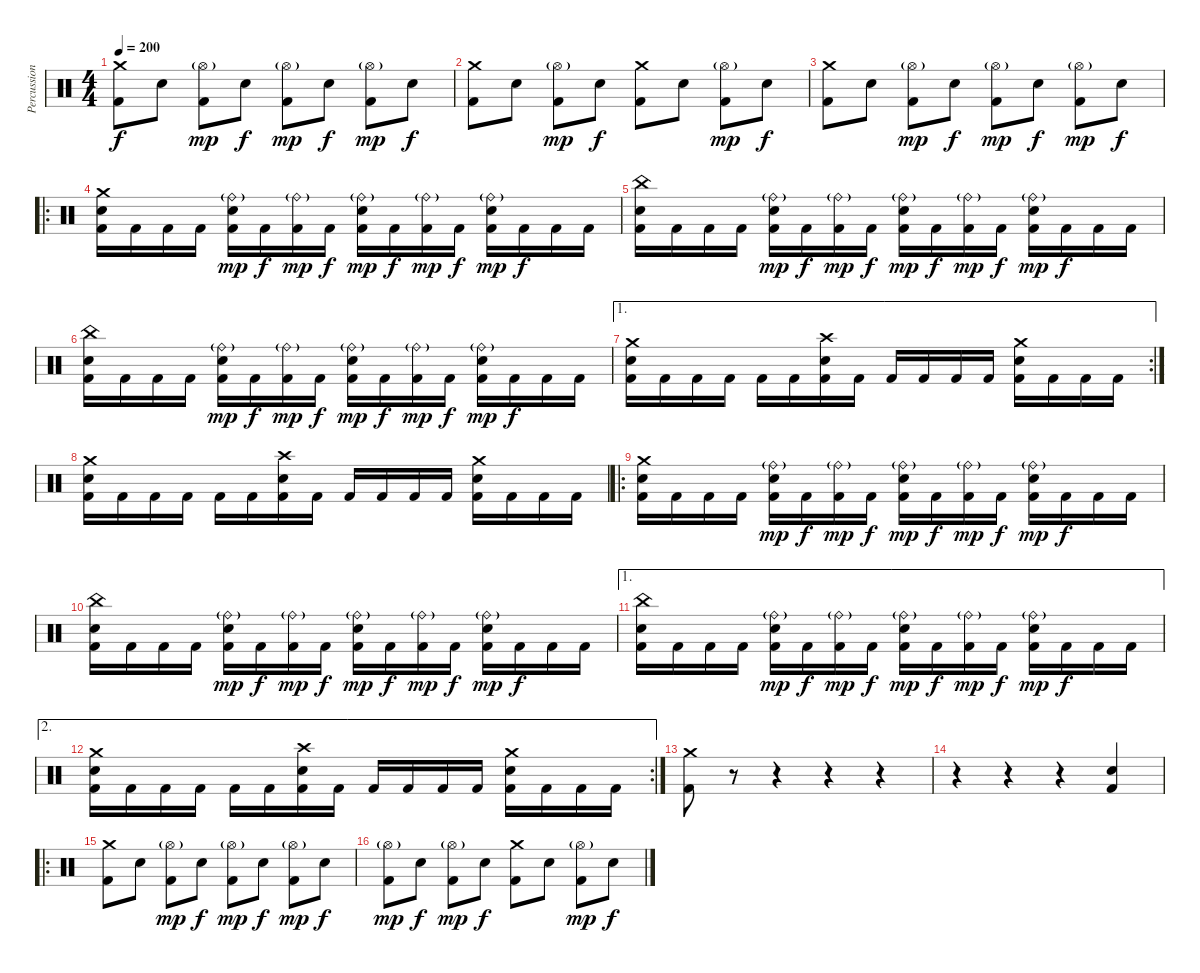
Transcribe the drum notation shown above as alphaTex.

\track ("Percussion" "Percussion") {instrument percussion}
\staff {score}
\articulation defaults
\ts (4 4)
\tempo 200
\clef neutral
\ks c
("Crash medium (hit)" "Kick (hit) 2").8{dy f} "Electric Snare (hit)".8 ("Hi-Hat (open)"{g} "Kick (hit) 2").8{dy mp} "Electric Snare (hit)".8{dy f} ("Hi-Hat (open)"{g} "Kick (hit) 2").8{dy mp} "Electric Snare (hit)".8{dy f} ("Hi-Hat (open)"{g} "Kick (hit) 2").8{dy mp} "Electric Snare (hit)".8{dy f} |
("Crash medium (hit)" "Kick (hit) 2").8 "Electric Snare (hit)".8 ("Hi-Hat (open)"{g} "Kick (hit) 2").8{dy mp} "Electric Snare (hit)".8{dy f} ("Crash medium (hit)" "Kick (hit) 2").8 "Electric Snare (hit)".8 ("Hi-Hat (open)"{g} "Kick (hit) 2").8{dy mp} "Electric Snare (hit)".8{dy f} |
("Crash medium (hit)" "Kick (hit) 2").8 "Electric Snare (hit)".8 ("Hi-Hat (open)"{g} "Kick (hit) 2").8{dy mp} "Electric Snare (hit)".8{dy f} ("Hi-Hat (open)"{g} "Kick (hit) 2").8{dy mp} "Electric Snare (hit)".8{dy f} ("Hi-Hat (open)"{g} "Kick (hit) 2").8{dy mp} "Electric Snare (hit)".8{dy f} |
\ro
("Crash medium (hit)" "Electric Snare (hit)" "Kick (hit) 2").16 "Kick (hit) 2".16 "Kick (hit) 2".16 "Kick (hit) 2".16 ("Ride (bell)"{g} "Electric Snare (hit)" "Kick (hit) 2").16{dy mp} "Kick (hit) 2".16{dy f} ("Ride (bell)"{g} "Kick (hit) 2").16{dy mp} "Kick (hit) 2".16{dy f} ("Ride (bell)"{g} "Electric Snare (hit)" "Kick (hit) 2").16{dy mp} "Kick (hit) 2".16{dy f} ("Ride (bell)"{g} "Kick (hit) 2").16{dy mp} "Kick (hit) 2".16{dy f} ("Ride (bell)"{g} "Electric Snare (hit)" "Kick (hit) 2").16{dy mp} "Kick (hit) 2".16{dy f} "Kick (hit) 2".16 "Kick (hit) 2".16 |
("China (hit)" "Electric Snare (hit)" "Kick (hit) 2").16 "Kick (hit) 2".16 "Kick (hit) 2".16 "Kick (hit) 2".16 ("Ride (bell)"{g} "Electric Snare (hit)" "Kick (hit) 2").16{dy mp} "Kick (hit) 2".16{dy f} ("Ride (bell)"{g} "Kick (hit) 2").16{dy mp} "Kick (hit) 2".16{dy f} ("Ride (bell)"{g} "Electric Snare (hit)" "Kick (hit) 2").16{dy mp} "Kick (hit) 2".16{dy f} ("Ride (bell)"{g} "Kick (hit) 2").16{dy mp} "Kick (hit) 2".16{dy f} ("Ride (bell)"{g} "Electric Snare (hit)" "Kick (hit) 2").16{dy mp} "Kick (hit) 2".16{dy f} "Kick (hit) 2".16 "Kick (hit) 2".16 |
("China (hit)" "Electric Snare (hit)" "Kick (hit) 2").16 "Kick (hit) 2".16 "Kick (hit) 2".16 "Kick (hit) 2".16 ("Ride (bell)"{g} "Electric Snare (hit)" "Kick (hit) 2").16{dy mp} "Kick (hit) 2".16{dy f} ("Ride (bell)"{g} "Kick (hit) 2").16{dy mp} "Kick (hit) 2".16{dy f} ("Ride (bell)"{g} "Electric Snare (hit)" "Kick (hit) 2").16{dy mp} "Kick (hit) 2".16{dy f} ("Ride (bell)"{g} "Kick (hit) 2").16{dy mp} "Kick (hit) 2".16{dy f} ("Ride (bell)"{g} "Electric Snare (hit)" "Kick (hit) 2").16{dy mp} "Kick (hit) 2".16{dy f} "Kick (hit) 2".16 "Kick (hit) 2".16 |
\ae 1
\rc 2
("Crash medium (hit)" "Electric Snare (hit)" "Kick (hit) 2").16 "Kick (hit) 2".16 "Kick (hit) 2".16 "Kick (hit) 2".16 "Kick (hit) 2".16 "Kick (hit) 2".16 ("Crash high (hit)" "Electric Snare (hit)" "Kick (hit) 2").16 "Kick (hit) 2".16 "Kick (hit) 2".16 "Kick (hit) 2".16 "Kick (hit) 2".16 "Kick (hit) 2".16 ("Crash medium (hit)" "Electric Snare (hit)" "Kick (hit) 2").16 "Kick (hit) 2".16 "Kick (hit) 2".16 "Kick (hit) 2".16 |
("Crash medium (hit)" "Electric Snare (hit)" "Kick (hit) 2").16 "Kick (hit) 2".16 "Kick (hit) 2".16 "Kick (hit) 2".16 "Kick (hit) 2".16 "Kick (hit) 2".16 ("Crash high (hit)" "Electric Snare (hit)" "Kick (hit) 2").16 "Kick (hit) 2".16 "Kick (hit) 2".16 "Kick (hit) 2".16 "Kick (hit) 2".16 "Kick (hit) 2".16 ("Crash medium (hit)" "Electric Snare (hit)" "Kick (hit) 2").16 "Kick (hit) 2".16 "Kick (hit) 2".16 "Kick (hit) 2".16 |
\ro
("Crash medium (hit)" "Electric Snare (hit)" "Kick (hit) 2").16 "Kick (hit) 2".16 "Kick (hit) 2".16 "Kick (hit) 2".16 ("Ride (bell)"{g} "Electric Snare (hit)" "Kick (hit) 2").16{dy mp} "Kick (hit) 2".16{dy f} ("Ride (bell)"{g} "Kick (hit) 2").16{dy mp} "Kick (hit) 2".16{dy f} ("Ride (bell)"{g} "Electric Snare (hit)" "Kick (hit) 2").16{dy mp} "Kick (hit) 2".16{dy f} ("Ride (bell)"{g} "Kick (hit) 2").16{dy mp} "Kick (hit) 2".16{dy f} ("Ride (bell)"{g} "Electric Snare (hit)" "Kick (hit) 2").16{dy mp} "Kick (hit) 2".16{dy f} "Kick (hit) 2".16 "Kick (hit) 2".16 |
("China (hit)" "Electric Snare (hit)" "Kick (hit) 2").16 "Kick (hit) 2".16 "Kick (hit) 2".16 "Kick (hit) 2".16 ("Ride (bell)"{g} "Electric Snare (hit)" "Kick (hit) 2").16{dy mp} "Kick (hit) 2".16{dy f} ("Ride (bell)"{g} "Kick (hit) 2").16{dy mp} "Kick (hit) 2".16{dy f} ("Ride (bell)"{g} "Electric Snare (hit)" "Kick (hit) 2").16{dy mp} "Kick (hit) 2".16{dy f} ("Ride (bell)"{g} "Kick (hit) 2").16{dy mp} "Kick (hit) 2".16{dy f} ("Ride (bell)"{g} "Electric Snare (hit)" "Kick (hit) 2").16{dy mp} "Kick (hit) 2".16{dy f} "Kick (hit) 2".16 "Kick (hit) 2".16 |
\ae 1
("China (hit)" "Electric Snare (hit)" "Kick (hit) 2").16 "Kick (hit) 2".16 "Kick (hit) 2".16 "Kick (hit) 2".16 ("Ride (bell)"{g} "Electric Snare (hit)" "Kick (hit) 2").16{dy mp} "Kick (hit) 2".16{dy f} ("Ride (bell)"{g} "Kick (hit) 2").16{dy mp} "Kick (hit) 2".16{dy f} ("Ride (bell)"{g} "Electric Snare (hit)" "Kick (hit) 2").16{dy mp} "Kick (hit) 2".16{dy f} ("Ride (bell)"{g} "Kick (hit) 2").16{dy mp} "Kick (hit) 2".16{dy f} ("Ride (bell)"{g} "Electric Snare (hit)" "Kick (hit) 2").16{dy mp} "Kick (hit) 2".16{dy f} "Kick (hit) 2".16 "Kick (hit) 2".16 |
\ae 2
\rc 2
("Crash medium (hit)" "Electric Snare (hit)" "Kick (hit) 2").16 "Kick (hit) 2".16 "Kick (hit) 2".16 "Kick (hit) 2".16 "Kick (hit) 2".16 "Kick (hit) 2".16 ("Crash high (hit)" "Electric Snare (hit)" "Kick (hit) 2").16 "Kick (hit) 2".16 "Kick (hit) 2".16 "Kick (hit) 2".16 "Kick (hit) 2".16 "Kick (hit) 2".16 ("Crash medium (hit)" "Electric Snare (hit)" "Kick (hit) 2").16 "Kick (hit) 2".16 "Kick (hit) 2".16 "Kick (hit) 2".16 |
("Crash medium (hit)" "Kick (hit) 2").8 r.8 r.4 r.4 r.4 |
r.4 r.4 r.4 ("Electric Snare (hit)" "Kick (hit) 2").4 |
\ro
("Crash medium (hit)" "Kick (hit) 2").8 "Electric Snare (hit)".8 ("Hi-Hat (open)"{g} "Kick (hit) 2").8{dy mp} "Electric Snare (hit)".8{dy f} ("Hi-Hat (open)"{g} "Kick (hit) 2").8{dy mp} "Electric Snare (hit)".8{dy f} ("Hi-Hat (open)"{g} "Kick (hit) 2").8{dy mp} "Electric Snare (hit)".8{dy f} |
("Hi-Hat (open)"{g} "Kick (hit) 2").8{dy mp} "Electric Snare (hit)".8{dy f} ("Hi-Hat (open)"{g} "Kick (hit) 2").8{dy mp} "Electric Snare (hit)".8{dy f} ("Crash medium (hit)" "Kick (hit) 2").8 "Electric Snare (hit)".8 ("Hi-Hat (open)"{g} "Kick (hit) 2").8{dy mp} "Electric Snare (hit)".8{dy f}
